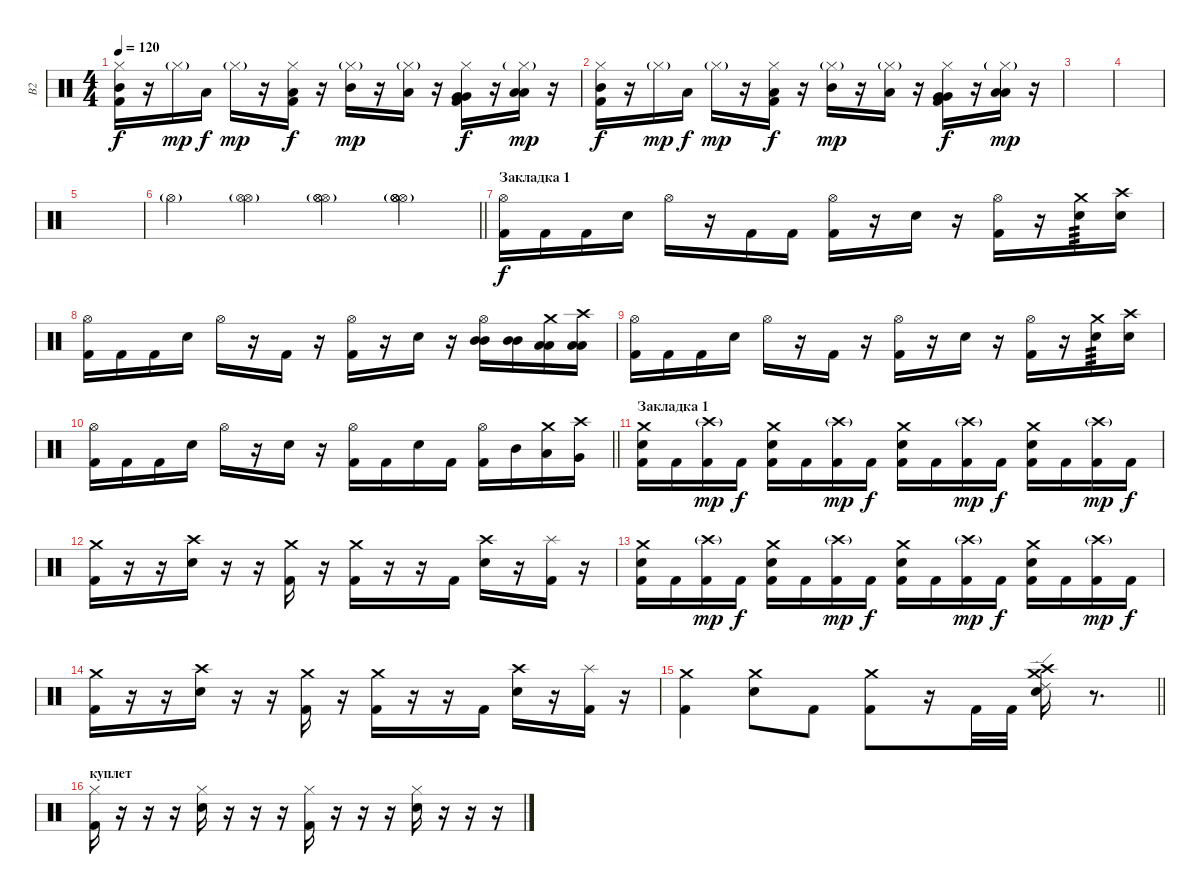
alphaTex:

\track ("В2" "В2") {instrument percussion}
\staff {score}
\articulation defaults
\ts (4 4)
\tempo 120
\clef neutral
\ks c
("Hi-Hat (closed)" "Mid Tom (hit)" "Kick (hit) 2").16{dy f} r.16 "Hi-Hat (closed)"{g}.16{dy mp} "Low Tom (hit)".16{dy f} "Hi-Hat (closed)"{g}.16{dy mp} r.16 ("Hi-Hat (closed)" "Low Floor Tom (hit)" "Kick (hit) 2").16{dy f} r.16 ("Hi-Hat (closed)"{g} "Mid Tom (hit)").16{dy mp} r.16 ("Hi-Hat (closed)"{g} "Low Tom (hit)").16 r.16 ("Hi-Hat (closed)" "Very Low Tom (hit)" "Very Low Tom (hit)" "Kick (hit) 2").16{dy f} r.16 ("Hi-Hat (closed)"{g} "Low Floor Tom (hit)" "Low Floor Tom (hit)").16{dy mp} r.16 |
("Hi-Hat (closed)" "Mid Tom (hit)" "Kick (hit) 2").16{dy f} r.16 "Hi-Hat (closed)"{g}.16{dy mp} "Low Tom (hit)".16{dy f} "Hi-Hat (closed)"{g}.16{dy mp} r.16 ("Hi-Hat (closed)" "Low Floor Tom (hit)" "Kick (hit) 2").16{dy f} r.16 ("Hi-Hat (closed)"{g} "Mid Tom (hit)").16{dy mp} r.16 ("Hi-Hat (closed)"{g} "Low Tom (hit)").16 r.16 ("Hi-Hat (closed)" "Very Low Tom (hit)" "Very Low Tom (hit)" "Kick (hit) 2").16{dy f} r.16 ("Hi-Hat (closed)"{g} "Low Floor Tom (hit)" "Low Floor Tom (hit)").16{dy mp} r.16 |
|
|
|
\barLineRight lightlight "Hi-Hat (open)"{g}.4
("Hi-Hat (open)"{g} "Hi-Hat (open)").4 ("Hi-Hat (open)"{g} "Hi-Hat (open)"{g} "Hi-Hat (open)").4 ("Hi-Hat (open)"{g} "Hi-Hat (open)"{g} "Hi-Hat (open)"{g} "Hi-Hat (open)").4 |
\section ("" "Закладка 1")
("Hi-Hat (open)" "Kick (hit) 2").16{dy f} "Kick (hit) 2".16 "Kick (hit) 2".16 "Snare (hit) 2".16 "Hi-Hat (open)".16 r.16 "Kick (hit) 2".16 "Kick (hit) 2".16 ("Hi-Hat (open)" "Kick (hit) 2").16 r.16 "Snare (hit) 2".16 r.16 ("Hi-Hat (open)" "Kick (hit) 2").16 r.16 ("Crash medium (hit)" "Snare (hit) 2").16{tp 3} ("Crash high (hit)" "Snare (hit) 2").16 |
("Hi-Hat (open)" "Kick (hit) 2").16 "Kick (hit) 2".16 "Kick (hit) 2".16 "Snare (hit) 2".16 "Hi-Hat (open)".16 r.16 "Kick (hit) 2".16 r.16 ("Hi-Hat (open)" "Kick (hit) 2").16 r.16 "Snare (hit) 2".16 r.16 ("Hi-Hat (open)" "Mid Tom (hit)" "Mid Tom (hit)").16 ("Mid Tom (hit)" "Mid Tom (hit)").16 ("Crash medium (hit)" "Low Tom (hit)" "Low Tom (hit)").16 ("Crash high (hit)" "Low Tom (hit)" "Low Tom (hit)").16 |
("Hi-Hat (open)" "Kick (hit) 2").16 "Kick (hit) 2".16 "Kick (hit) 2".16 "Snare (hit) 2".16 "Hi-Hat (open)".16 r.16 "Kick (hit) 2".16 r.16 ("Hi-Hat (open)" "Kick (hit) 2").16 r.16 "Snare (hit) 2".16 r.16 ("Hi-Hat (open)" "Kick (hit) 2").16 r.16 ("Crash medium (hit)" "Snare (hit) 2").16{tp 3} ("Crash high (hit)" "Snare (hit) 2").16 |
\barLineRight lightlight
("Hi-Hat (open)" "Kick (hit) 2").16 "Kick (hit) 2".16 "Kick (hit) 2".16 "Snare (hit) 2".16 "Hi-Hat (open)".16 r.16 "Snare (hit) 2".16 r.16 ("Hi-Hat (open)" "Kick (hit) 2").16 "Kick (hit) 2".16 "Snare (hit) 2".16 "Kick (hit) 2".16 ("Hi-Hat (open)" "Kick (hit) 2").16 "Mid Tom (hit)".16 ("Crash medium (hit)" "Low Tom (hit)").16 ("Crash high (hit)" "Very Low Tom (hit)").16 |
\section ("" "Закладка 1")
("Crash medium (hit)" "Snare (hit) 2" "Kick (hit) 2").16 "Kick (hit) 2".16 ("Crash high (hit)"{g} "Kick (hit) 2").16{dy mp} "Kick (hit) 2".16{dy f} ("Crash medium (hit)" "Snare (hit) 2" "Kick (hit) 2").16 "Kick (hit) 2".16 ("Crash high (hit)"{g} "Kick (hit) 2").16{dy mp} "Kick (hit) 2".16{dy f} ("Crash medium (hit)" "Snare (hit) 2" "Kick (hit) 2").16 "Kick (hit) 2".16 ("Crash high (hit)"{g} "Kick (hit) 2").16{dy mp} "Kick (hit) 2".16{dy f} ("Crash medium (hit)" "Snare (hit) 2" "Kick (hit) 2").16 "Kick (hit) 2".16 ("Crash high (hit)"{g} "Kick (hit) 2").16{dy mp} "Kick (hit) 2".16{dy f} |
("Crash medium (hit)" "Kick (hit) 2").16 r.16 r.16 ("Crash high (hit)" "Snare (hit) 2").16 r.16 r.16 ("Crash medium (hit)" "Kick (hit) 2").16 r.16 ("Crash medium (hit)" "Kick (hit) 2").16 r.16 r.16 "Kick (hit) 2".16 ("Crash high (hit)" "Snare (hit) 2").16 r.16 ("Splash (hit)" "Kick (hit) 2").16 r.16 |
("Crash medium (hit)" "Snare (hit) 2" "Kick (hit) 2").16 "Kick (hit) 2".16 ("Crash high (hit)"{g} "Kick (hit) 2").16{dy mp} "Kick (hit) 2".16{dy f} ("Crash medium (hit)" "Snare (hit) 2" "Kick (hit) 2").16 "Kick (hit) 2".16 ("Crash high (hit)"{g} "Kick (hit) 2").16{dy mp} "Kick (hit) 2".16{dy f} ("Crash medium (hit)" "Snare (hit) 2" "Kick (hit) 2").16 "Kick (hit) 2".16 ("Crash high (hit)"{g} "Kick (hit) 2").16{dy mp} "Kick (hit) 2".16{dy f} ("Crash medium (hit)" "Snare (hit) 2" "Kick (hit) 2").16 "Kick (hit) 2".16 ("Crash high (hit)"{g} "Kick (hit) 2").16{dy mp} "Kick (hit) 2".16{dy f} |
("Crash medium (hit)" "Kick (hit) 2").16 r.16 r.16 ("Crash high (hit)" "Snare (hit) 2").16 r.16 r.16 ("Crash medium (hit)" "Kick (hit) 2").16 r.16 ("Crash medium (hit)" "Kick (hit) 2").16 r.16 r.16 "Kick (hit) 2".16 ("Crash high (hit)" "Snare (hit) 2").16 r.16 ("Splash (hit)" "Kick (hit) 2").16 r.16 |
\barLineRight lightlight
("Crash medium (hit)" "Kick (hit) 2").4 ("Crash medium (hit)" "Snare (hit) 2").8 "Kick (hit) 2".8 ("Crash medium (hit)" "Kick (hit) 2").8 r.16 "Kick (hit) 2".32 "Kick (hit) 2".32 ("Ride (edge) 2" "Crash high (hit)" "Crash medium (hit)" "Snare (hit) 2").16 r.8{d} |
\section ("" "куплет")
("Hi-Hat (closed)" "Kick (hit) 2").16 r.16 r.16 r.16 ("Hi-Hat (closed)" "Snare (hit) 2").16 r.16 r.16 r.16 ("Hi-Hat (closed)" "Kick (hit) 2").16 r.16 r.16 r.16 ("Hi-Hat (closed)" "Snare (hit) 2").16 r.16 r.16 r.16
